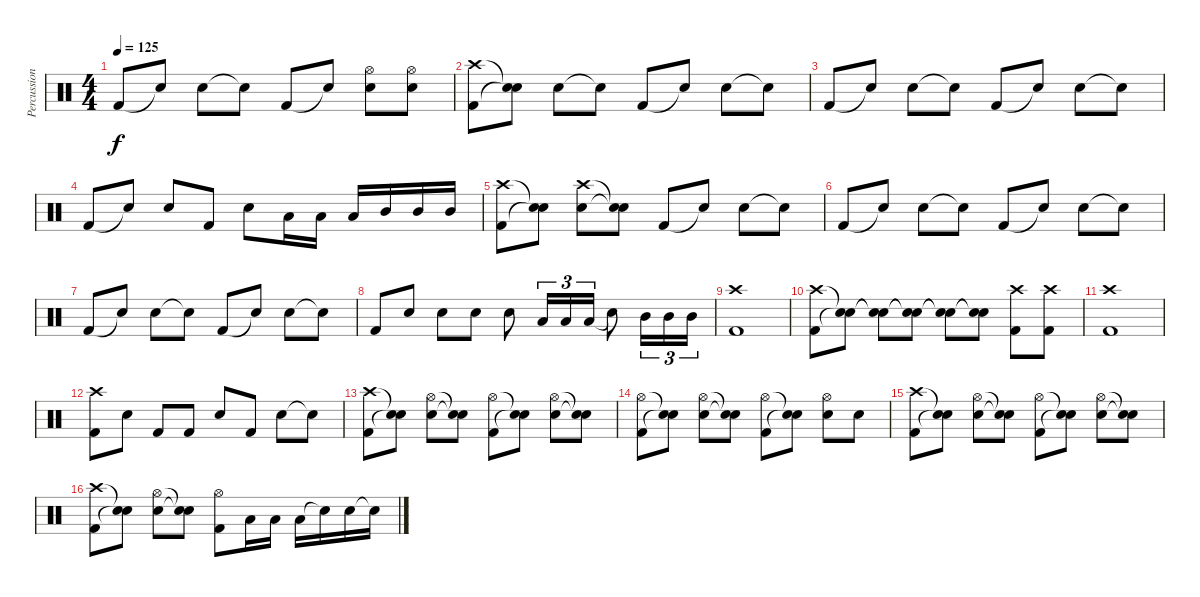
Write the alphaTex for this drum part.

\track ("Percussion" "Percussion") {instrument percussion}
\staff {score}
\articulation defaults
\ts (4 4)
\tempo 125
\clef neutral
\ks c "Kick (hit) 2".8{dy f} "Snare (hit)"{t}.8 "Snare (hit) 2".8 "Snare (hit)"{t}.8 "Kick (hit) 2".8 "Snare (hit)"{t}.8
("Snare (hit) 2" "Hi-Hat (open)").8 ("Snare (hit) 2" "Hi-Hat (open)").8 |
("Kick (hit) 2" "Crash high (hit)").8 ("Snare (hit)"{t} "Snare (hit)"{t}).8 "Snare (hit) 2".8 "Snare (hit)"{t}.8 "Kick (hit) 2".8 "Snare (hit)"{t}.8 "Snare (hit) 2".8 "Snare (hit)"{t}.8 |
"Kick (hit) 2".8 "Snare (hit)"{t}.8 "Snare (hit) 2".8 "Snare (hit)"{t}.8 "Kick (hit) 2".8 "Snare (hit)"{t}.8 "Snare (hit) 2".8 "Snare (hit)"{t}.8 |
"Kick (hit) 2".8 "Snare (hit)"{t}.8 "Snare (hit) 2".8 "Kick (hit) 2".8 "Snare (hit) 2".8 "Low Tom (hit)".16 "Low Tom (hit)".16 "Low Tom (hit)".16 "Mid Tom (hit)".16 "Mid Tom (hit)".16 "Mid Tom (hit)".16 |
("Kick (hit) 2" "Crash high (hit)").8 ("Snare (hit)"{t} "Snare (hit)"{t}).8 ("Snare (hit) 2" "Crash high (hit)").8 ("Snare (hit)"{t} "Snare (hit)"{t}).8 "Kick (hit) 2".8 "Snare (hit)"{t}.8 "Snare (hit) 2".8 "Snare (hit)"{t}.8 |
"Kick (hit) 2".8 "Snare (hit)"{t}.8 "Snare (hit) 2".8 "Snare (hit)"{t}.8 "Kick (hit) 2".8 "Snare (hit)"{t}.8 "Snare (hit) 2".8 "Snare (hit)"{t}.8 |
"Kick (hit) 2".8 "Snare (hit)"{t}.8 "Snare (hit) 2".8 "Snare (hit)"{t}.8 "Kick (hit) 2".8 "Snare (hit)"{t}.8 "Snare (hit) 2".8 "Snare (hit)"{t}.8 |
"Kick (hit) 2".8 "Snare (hit) 2".8 "Snare (hit) 2".8 "Snare (hit) 2".8 "Snare (hit) 2".8 "Low Tom (hit)".16{tu (3 2)} "Low Tom (hit)".16{tu (3 2)} "Low Tom (hit)".16{tu (3 2)} "Snare (hit)"{t}.8 "Mid Tom (hit)".16{tu (3 2)} "Mid Tom (hit)".16{tu (3 2)} "Mid Tom (hit)".16{tu (3 2)} |
("Kick (hit) 2" "Crash high (hit)").1 |
("Kick (hit) 2" "Crash high (hit)").8 ("Snare (hit)"{t} "Snare (hit)"{t}).8 ("Snare (hit)"{t} "Snare (hit)"{t}).8 ("Snare (hit)"{t} "Snare (hit)"{t}).8 ("Snare (hit)"{t} "Snare (hit)"{t}).8 ("Snare (hit)"{t} "Snare (hit)"{t}).8 ("Kick (hit) 2" "Crash high (hit)").8 ("Kick (hit) 2" "Crash high (hit)").8 |
("Kick (hit) 2" "Crash high (hit)").1 |
("Kick (hit) 2" "Crash high (hit)").8 "Snare (hit) 2".8 "Kick (hit) 2".8 "Kick (hit) 2".8 "Snare (hit) 2".8 "Kick (hit) 2".8 "Snare (hit) 2".8 "Snare (hit)"{t}.8 |
("Kick (hit) 2" "Crash high (hit)").8 ("Snare (hit)"{t} "Snare (hit)"{t}).8 ("Snare (hit) 2" "Hi-Hat (open)").8 ("Snare (hit)"{t} "Snare (hit)"{t}).8 ("Kick (hit) 2" "Hi-Hat (open)").8 ("Snare (hit)"{t} "Snare (hit)"{t}).8 ("Snare (hit) 2" "Hi-Hat (open)").8 ("Snare (hit)"{t} "Snare (hit)"{t}).8 |
("Kick (hit) 2" "Hi-Hat (open)").8 ("Snare (hit)"{t} "Snare (hit)"{t}).8 ("Snare (hit) 2" "Hi-Hat (open)").8 ("Snare (hit)"{t} "Snare (hit)"{t}).8 ("Kick (hit) 2" "Hi-Hat (open)").8 ("Snare (hit)"{t} "Snare (hit)"{t}).8 ("Snare (hit) 2" "Hi-Hat (open)").8 "Snare (hit) 2".8 |
("Kick (hit) 2" "Crash high (hit)").8 ("Snare (hit)"{t} "Snare (hit)"{t}).8 ("Snare (hit) 2" "Hi-Hat (open)").8 ("Snare (hit)"{t} "Snare (hit)"{t}).8 ("Kick (hit) 2" "Hi-Hat (open)").8 ("Snare (hit)"{t} "Snare (hit)"{t}).8 ("Snare (hit) 2" "Hi-Hat (open)").8 ("Snare (hit)"{t} "Snare (hit)"{t}).8 |
("Kick (hit) 2" "Crash high (hit)").8 ("Snare (hit)"{t} "Snare (hit)"{t}).8 ("Snare (hit) 2" "Hi-Hat (open)").8 ("Snare (hit)"{t} "Snare (hit)"{t}).8 ("Kick (hit) 2" "Hi-Hat (open)").8 "Low Tom (hit)".16 "Low Tom (hit)".16 "Low Tom (hit)".16 "Snare (hit)"{t}.16 "Snare (hit) 2".16 "Snare (hit)"{t}.16
